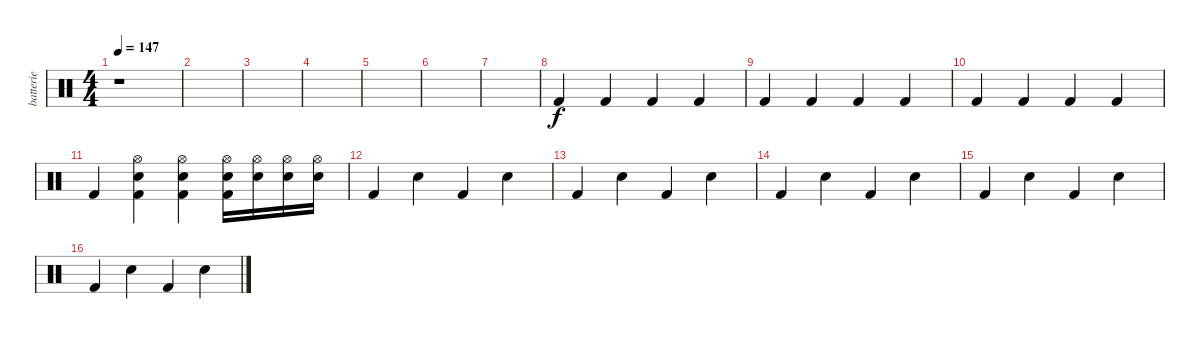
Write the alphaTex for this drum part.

\track ("batterie" "batterie") {instrument percussion}
\staff {score}
\articulation defaults
\ts (4 4)
\tempo 147
\clef neutral
\ks c
r.1{dy f} |
|
|
|
|
|
|
"Kick (hit) 2".4 "Kick (hit) 2".4 "Kick (hit) 2".4 "Kick (hit) 2".4 |
"Kick (hit) 2".4 "Kick (hit) 2".4 "Kick (hit) 2".4 "Kick (hit) 2".4 |
"Kick (hit) 2".4 "Kick (hit) 2".4 "Kick (hit) 2".4 "Kick (hit) 2".4 |
"Kick (hit) 2".4 ("Snare (hit) 2" "Hi-Hat (open)" "Kick (hit) 2").4 ("Snare (hit) 2" "Hi-Hat (open)" "Kick (hit) 2").4 ("Snare (hit) 2" "Hi-Hat (open)" "Kick (hit) 2").16 ("Snare (hit) 2" "Hi-Hat (open)").16 ("Snare (hit) 2" "Hi-Hat (open)").16 ("Snare (hit) 2" "Hi-Hat (open)").16 |
"Kick (hit) 2".4 "Snare (hit) 2".4 "Kick (hit) 2".4 "Snare (hit) 2".4 |
"Kick (hit) 2".4 "Snare (hit) 2".4 "Kick (hit) 2".4 "Snare (hit) 2".4 |
"Kick (hit) 2".4 "Snare (hit) 2".4 "Kick (hit) 2".4 "Snare (hit) 2".4 |
"Kick (hit) 2".4 "Snare (hit) 2".4 "Kick (hit) 2".4 "Snare (hit) 2".4 |
"Kick (hit) 2".4 "Snare (hit) 2".4 "Kick (hit) 2".4 "Snare (hit) 2".4
